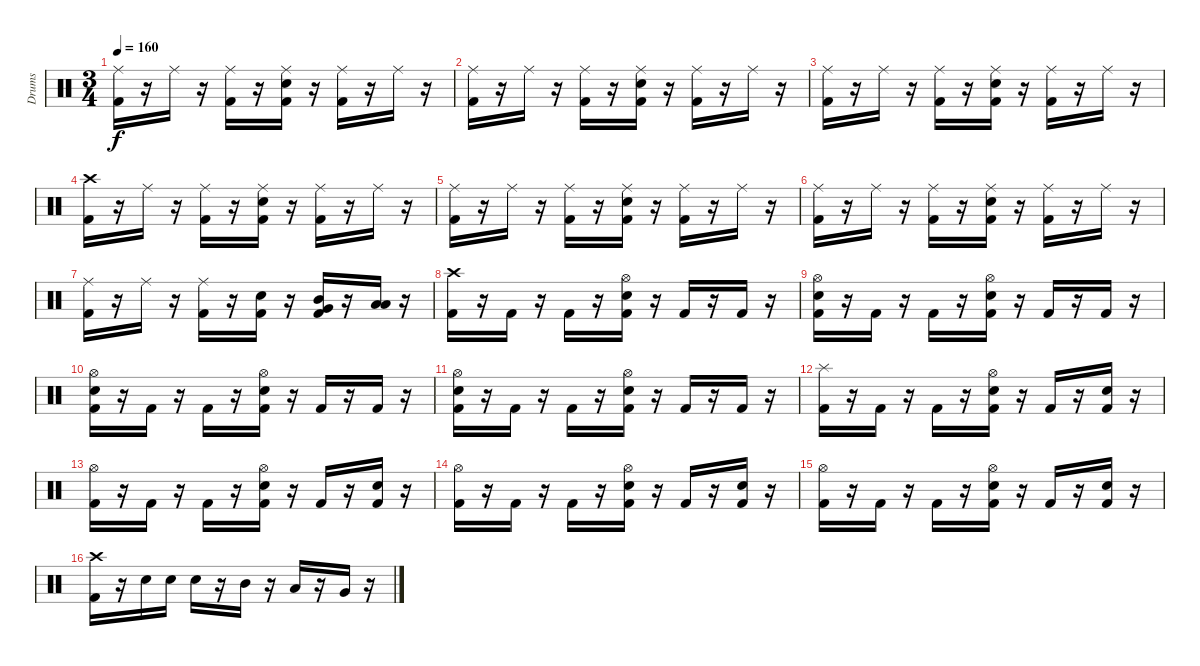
\track ("Drums" "Drums") {instrument percussion}
\staff {score}
\articulation defaults
\ts (3 4)
\tempo 160
\clef neutral
\ks c
("Ride (middle)" "Kick (hit) 2").16{dy f} r.16 "Ride (middle)".16 r.16 ("Ride (middle)" "Kick (hit) 2").16 r.16 ("Ride (middle)" "Snare (hit) 2" "Kick (hit) 2").16 r.16 ("Ride (middle)" "Kick (hit) 2").16 r.16 "Ride (middle)".16 r.16 |
("Ride (middle)" "Kick (hit) 2").16 r.16 "Ride (middle)".16 r.16 ("Ride (middle)" "Kick (hit) 2").16 r.16 ("Ride (middle)" "Snare (hit) 2" "Kick (hit) 2").16 r.16 ("Ride (middle)" "Kick (hit) 2").16 r.16 "Ride (middle)".16 r.16 |
("Ride (middle)" "Kick (hit) 2").16 r.16 "Ride (middle)".16 r.16 ("Ride (middle)" "Kick (hit) 2").16 r.16 ("Ride (middle)" "Snare (hit) 2" "Kick (hit) 2").16 r.16 ("Ride (middle)" "Kick (hit) 2").16 r.16 "Ride (middle)".16 r.16 |
("Crash high (hit)" "Kick (hit) 2").16 r.16 "Ride (middle)".16 r.16 ("Ride (middle)" "Kick (hit) 2").16 r.16 ("Ride (middle)" "Snare (hit) 2" "Kick (hit) 2").16 r.16 ("Ride (middle)" "Kick (hit) 2").16 r.16 "Ride (middle)".16 r.16 |
("Ride (middle)" "Kick (hit) 2").16 r.16 "Ride (middle)".16 r.16 ("Ride (middle)" "Kick (hit) 2").16 r.16 ("Ride (middle)" "Snare (hit) 2" "Kick (hit) 2").16 r.16 ("Ride (middle)" "Kick (hit) 2").16 r.16 "Ride (middle)".16 r.16 |
("Ride (middle)" "Kick (hit) 2").16 r.16 "Ride (middle)".16 r.16 ("Ride (middle)" "Kick (hit) 2").16 r.16 ("Ride (middle)" "Snare (hit) 2" "Kick (hit) 2").16 r.16 ("Ride (middle)" "Kick (hit) 2").16 r.16 "Ride (middle)".16 r.16 |
("Ride (middle)" "Kick (hit) 2").16 r.16 "Ride (middle)".16 r.16 ("Ride (middle)" "Kick (hit) 2").16 r.16 ("Snare (hit) 2" "Kick (hit) 2").16 r.16 ("Very Low Tom (hit)" "Mid Tom (hit)" "Kick (hit) 2").16 r.16 ("Low Floor Tom (hit)" "Low Tom (hit)").16 r.16 |
("Crash high (hit)" "Kick (hit) 2").16 r.16 "Kick (hit) 2".16 r.16 "Kick (hit) 2".16 r.16 ("Hi-Hat (open)" "Snare (hit) 2" "Kick (hit) 2").16 r.16 "Kick (hit) 2".16 r.16 "Kick (hit) 2".16 r.16 |
("Hi-Hat (open)" "Snare (hit) 2" "Kick (hit) 2").16 r.16 "Kick (hit) 2".16 r.16 "Kick (hit) 2".16 r.16 ("Hi-Hat (open)" "Snare (hit) 2" "Kick (hit) 2").16 r.16 "Kick (hit) 2".16 r.16 "Kick (hit) 2".16 r.16 |
("Hi-Hat (open)" "Snare (hit) 2" "Kick (hit) 2").16 r.16 "Kick (hit) 2".16 r.16 "Kick (hit) 2".16 r.16 ("Hi-Hat (open)" "Snare (hit) 2" "Kick (hit) 2").16 r.16 "Kick (hit) 2".16 r.16 "Kick (hit) 2".16 r.16 |
("Hi-Hat (open)" "Snare (hit) 2" "Kick (hit) 2").16 r.16 "Kick (hit) 2".16 r.16 "Kick (hit) 2".16 r.16 ("Hi-Hat (open)" "Snare (hit) 2" "Kick (hit) 2").16 r.16 "Kick (hit) 2".16 r.16 "Kick (hit) 2".16 r.16 |
("Splash (hit)" "Kick (hit) 2").16 r.16 "Kick (hit) 2".16 r.16 "Kick (hit) 2".16 r.16 ("Hi-Hat (open)" "Snare (hit) 2" "Kick (hit) 2").16 r.16 "Kick (hit) 2".16 r.16 ("Snare (hit) 2" "Kick (hit) 2").16 r.16 |
("Hi-Hat (open)" "Kick (hit) 2").16 r.16 "Kick (hit) 2".16 r.16 "Kick (hit) 2".16 r.16 ("Hi-Hat (open)" "Snare (hit) 2" "Kick (hit) 2").16 r.16 "Kick (hit) 2".16 r.16 ("Snare (hit) 2" "Kick (hit) 2").16 r.16 |
("Hi-Hat (open)" "Kick (hit) 2").16 r.16 "Kick (hit) 2".16 r.16 "Kick (hit) 2".16 r.16 ("Hi-Hat (open)" "Snare (hit) 2" "Kick (hit) 2").16 r.16 "Kick (hit) 2".16 r.16 ("Snare (hit) 2" "Kick (hit) 2").16 r.16 |
("Hi-Hat (open)" "Kick (hit) 2").16 r.16 "Kick (hit) 2".16 r.16 "Kick (hit) 2".16 r.16 ("Hi-Hat (open)" "Snare (hit) 2" "Kick (hit) 2").16 r.16 "Kick (hit) 2".16 r.16 ("Snare (hit) 2" "Kick (hit) 2").16 r.16 |
("Crash high (hit)" "Kick (hit) 2").16 r.16 "Snare (hit) 2".16 "Snare (hit) 2".16 "Snare (hit) 2".16 r.16 "Mid Tom (hit)".16 r.16 "Low Tom (hit)".16 r.16 "Very Low Tom (hit)".16 r.16
